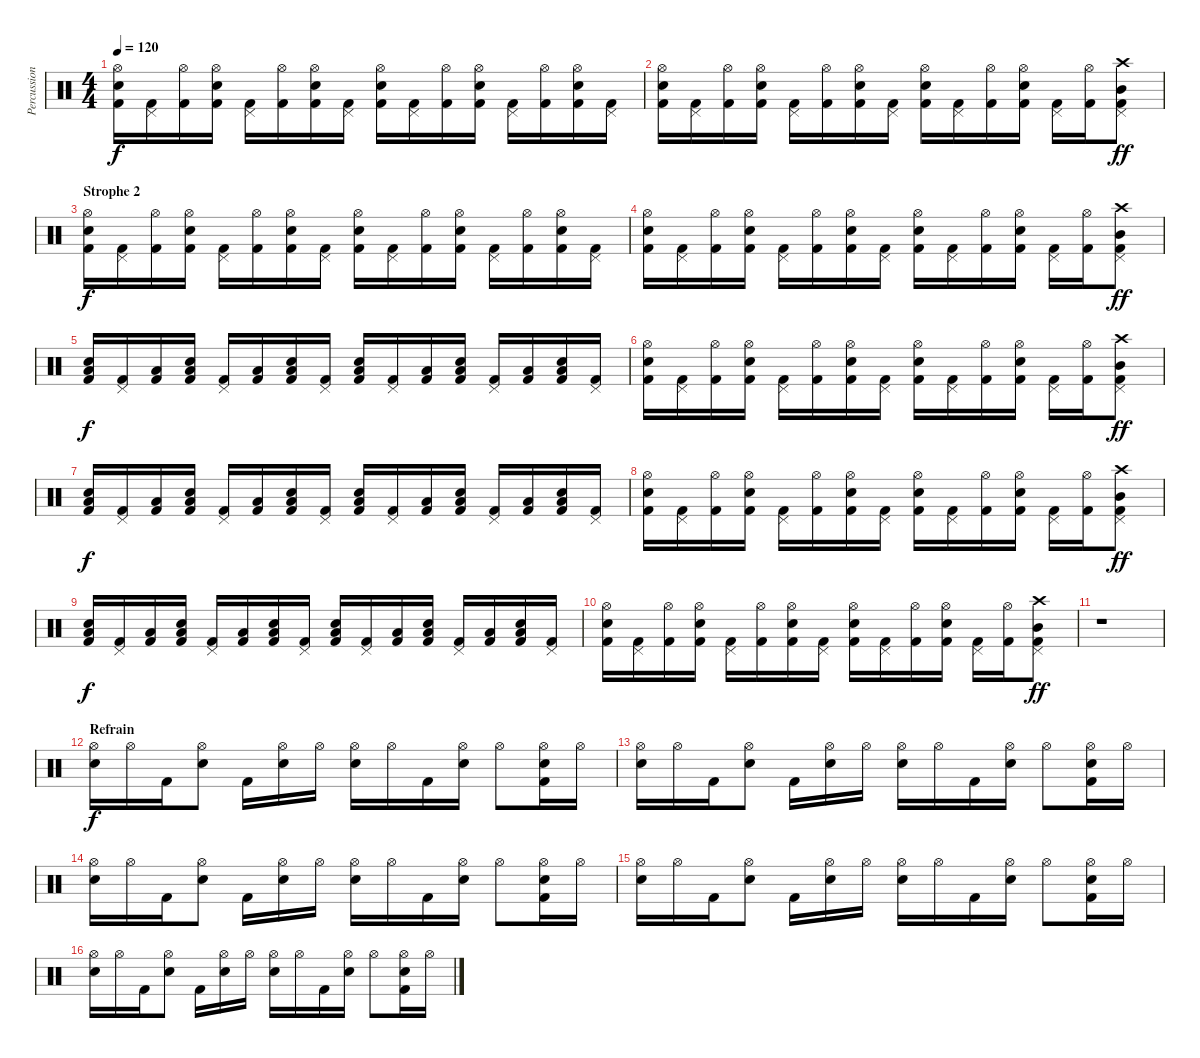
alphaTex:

\track ("Percussion" "Percussion") {instrument percussion}
\staff {score}
\articulation defaults
\ts (4 4)
\tempo 120
\clef neutral
\ks c
("Hi-Hat (open)" "Electric Snare (hit)" "Kick (hit) 2").16{dy f} ("Pedal Hi-Hat (hit)" "Kick (hit) 2").16 ("Hi-Hat (open)" "Kick (hit) 2").16 ("Hi-Hat (open)" "Electric Snare (hit)" "Kick (hit) 2").16 ("Pedal Hi-Hat (hit)" "Kick (hit) 2").16 ("Hi-Hat (open)" "Kick (hit) 2").16 ("Hi-Hat (open)" "Electric Snare (hit)" "Kick (hit) 2").16 ("Pedal Hi-Hat (hit)" "Kick (hit) 2").16 ("Hi-Hat (open)" "Electric Snare (hit)" "Kick (hit) 2").16 ("Pedal Hi-Hat (hit)" "Kick (hit) 2").16 ("Hi-Hat (open)" "Kick (hit) 2").16 ("Hi-Hat (open)" "Electric Snare (hit)" "Kick (hit) 2").16 ("Pedal Hi-Hat (hit)" "Kick (hit) 2").16 ("Hi-Hat (open)" "Kick (hit) 2").16 ("Hi-Hat (open)" "Electric Snare (hit)" "Kick (hit) 2").16 ("Pedal Hi-Hat (hit)" "Kick (hit) 2").16 |
("Hi-Hat (open)" "Electric Snare (hit)" "Kick (hit) 2").16 ("Pedal Hi-Hat (hit)" "Kick (hit) 2").16 ("Hi-Hat (open)" "Kick (hit) 2").16 ("Hi-Hat (open)" "Electric Snare (hit)" "Kick (hit) 2").16 ("Pedal Hi-Hat (hit)" "Kick (hit) 2").16 ("Hi-Hat (open)" "Kick (hit) 2").16 ("Hi-Hat (open)" "Electric Snare (hit)" "Kick (hit) 2").16 ("Pedal Hi-Hat (hit)" "Kick (hit) 2").16 ("Hi-Hat (open)" "Electric Snare (hit)" "Kick (hit) 2").16 ("Pedal Hi-Hat (hit)" "Kick (hit) 2").16 ("Hi-Hat (open)" "Kick (hit) 2").16 ("Hi-Hat (open)" "Electric Snare (hit)" "Kick (hit) 2").16 ("Pedal Hi-Hat (hit)" "Kick (hit) 2").16 ("Hi-Hat (open)" "Kick (hit) 2").16 ("Crash high (hit)" "Mid Tom (hit)" "Pedal Hi-Hat (hit)" "Kick (hit) 2").8{dy ff} |
\section ("" "Strophe 2")
("Hi-Hat (open)" "Electric Snare (hit)" "Kick (hit) 2").16{dy f} ("Pedal Hi-Hat (hit)" "Kick (hit) 2").16 ("Hi-Hat (open)" "Kick (hit) 2").16 ("Hi-Hat (open)" "Electric Snare (hit)" "Kick (hit) 2").16 ("Pedal Hi-Hat (hit)" "Kick (hit) 2").16 ("Hi-Hat (open)" "Kick (hit) 2").16 ("Hi-Hat (open)" "Electric Snare (hit)" "Kick (hit) 2").16 ("Pedal Hi-Hat (hit)" "Kick (hit) 2").16 ("Hi-Hat (open)" "Electric Snare (hit)" "Kick (hit) 2").16 ("Pedal Hi-Hat (hit)" "Kick (hit) 2").16 ("Hi-Hat (open)" "Kick (hit) 2").16 ("Hi-Hat (open)" "Electric Snare (hit)" "Kick (hit) 2").16 ("Pedal Hi-Hat (hit)" "Kick (hit) 2").16 ("Hi-Hat (open)" "Kick (hit) 2").16 ("Hi-Hat (open)" "Electric Snare (hit)" "Kick (hit) 2").16 ("Pedal Hi-Hat (hit)" "Kick (hit) 2").16 |
("Hi-Hat (open)" "Electric Snare (hit)" "Kick (hit) 2").16 ("Pedal Hi-Hat (hit)" "Kick (hit) 2").16 ("Hi-Hat (open)" "Kick (hit) 2").16 ("Hi-Hat (open)" "Electric Snare (hit)" "Kick (hit) 2").16 ("Pedal Hi-Hat (hit)" "Kick (hit) 2").16 ("Hi-Hat (open)" "Kick (hit) 2").16 ("Hi-Hat (open)" "Electric Snare (hit)" "Kick (hit) 2").16 ("Pedal Hi-Hat (hit)" "Kick (hit) 2").16 ("Hi-Hat (open)" "Electric Snare (hit)" "Kick (hit) 2").16 ("Pedal Hi-Hat (hit)" "Kick (hit) 2").16 ("Hi-Hat (open)" "Kick (hit) 2").16 ("Hi-Hat (open)" "Electric Snare (hit)" "Kick (hit) 2").16 ("Pedal Hi-Hat (hit)" "Kick (hit) 2").16 ("Hi-Hat (open)" "Kick (hit) 2").16 ("Crash high (hit)" "Mid Tom (hit)" "Pedal Hi-Hat (hit)" "Kick (hit) 2").8{dy ff} |
("Low Floor Tom (hit)" "Electric Snare (hit)" "Kick (hit) 2").16{dy f} ("Pedal Hi-Hat (hit)" "Kick (hit) 2").16 ("Low Floor Tom (hit)" "Kick (hit) 2").16 ("Low Floor Tom (hit)" "Electric Snare (hit)" "Kick (hit) 2").16 ("Pedal Hi-Hat (hit)" "Kick (hit) 2").16 ("Low Floor Tom (hit)" "Kick (hit) 2").16 ("Low Floor Tom (hit)" "Electric Snare (hit)" "Kick (hit) 2").16 ("Pedal Hi-Hat (hit)" "Kick (hit) 2").16 ("Low Floor Tom (hit)" "Electric Snare (hit)" "Kick (hit) 2").16 ("Pedal Hi-Hat (hit)" "Kick (hit) 2").16 ("Low Floor Tom (hit)" "Kick (hit) 2").16 ("Low Floor Tom (hit)" "Electric Snare (hit)" "Kick (hit) 2").16 ("Pedal Hi-Hat (hit)" "Kick (hit) 2").16 ("Low Floor Tom (hit)" "Kick (hit) 2").16 ("Low Floor Tom (hit)" "Electric Snare (hit)" "Kick (hit) 2").16 ("Pedal Hi-Hat (hit)" "Kick (hit) 2").16 |
("Hi-Hat (open)" "Electric Snare (hit)" "Kick (hit) 2").16 ("Pedal Hi-Hat (hit)" "Kick (hit) 2").16 ("Hi-Hat (open)" "Kick (hit) 2").16 ("Hi-Hat (open)" "Electric Snare (hit)" "Kick (hit) 2").16 ("Pedal Hi-Hat (hit)" "Kick (hit) 2").16 ("Hi-Hat (open)" "Kick (hit) 2").16 ("Hi-Hat (open)" "Electric Snare (hit)" "Kick (hit) 2").16 ("Pedal Hi-Hat (hit)" "Kick (hit) 2").16 ("Hi-Hat (open)" "Electric Snare (hit)" "Kick (hit) 2").16 ("Pedal Hi-Hat (hit)" "Kick (hit) 2").16 ("Hi-Hat (open)" "Kick (hit) 2").16 ("Hi-Hat (open)" "Electric Snare (hit)" "Kick (hit) 2").16 ("Pedal Hi-Hat (hit)" "Kick (hit) 2").16 ("Hi-Hat (open)" "Kick (hit) 2").16 ("Crash high (hit)" "Mid Tom (hit)" "Pedal Hi-Hat (hit)" "Kick (hit) 2").8{dy ff} |
("Low Floor Tom (hit)" "Electric Snare (hit)" "Kick (hit) 2").16{dy f} ("Pedal Hi-Hat (hit)" "Kick (hit) 2").16 ("Low Floor Tom (hit)" "Kick (hit) 2").16 ("Low Floor Tom (hit)" "Electric Snare (hit)" "Kick (hit) 2").16 ("Pedal Hi-Hat (hit)" "Kick (hit) 2").16 ("Low Floor Tom (hit)" "Kick (hit) 2").16 ("Low Floor Tom (hit)" "Electric Snare (hit)" "Kick (hit) 2").16 ("Pedal Hi-Hat (hit)" "Kick (hit) 2").16 ("Low Floor Tom (hit)" "Electric Snare (hit)" "Kick (hit) 2").16 ("Pedal Hi-Hat (hit)" "Kick (hit) 2").16 ("Low Floor Tom (hit)" "Kick (hit) 2").16 ("Low Floor Tom (hit)" "Electric Snare (hit)" "Kick (hit) 2").16 ("Pedal Hi-Hat (hit)" "Kick (hit) 2").16 ("Low Floor Tom (hit)" "Kick (hit) 2").16 ("Low Floor Tom (hit)" "Electric Snare (hit)" "Kick (hit) 2").16 ("Pedal Hi-Hat (hit)" "Kick (hit) 2").16 |
("Hi-Hat (open)" "Electric Snare (hit)" "Kick (hit) 2").16 ("Pedal Hi-Hat (hit)" "Kick (hit) 2").16 ("Hi-Hat (open)" "Kick (hit) 2").16 ("Hi-Hat (open)" "Electric Snare (hit)" "Kick (hit) 2").16 ("Pedal Hi-Hat (hit)" "Kick (hit) 2").16 ("Hi-Hat (open)" "Kick (hit) 2").16 ("Hi-Hat (open)" "Electric Snare (hit)" "Kick (hit) 2").16 ("Pedal Hi-Hat (hit)" "Kick (hit) 2").16 ("Hi-Hat (open)" "Electric Snare (hit)" "Kick (hit) 2").16 ("Pedal Hi-Hat (hit)" "Kick (hit) 2").16 ("Hi-Hat (open)" "Kick (hit) 2").16 ("Hi-Hat (open)" "Electric Snare (hit)" "Kick (hit) 2").16 ("Pedal Hi-Hat (hit)" "Kick (hit) 2").16 ("Hi-Hat (open)" "Kick (hit) 2").16 ("Crash high (hit)" "Mid Tom (hit)" "Pedal Hi-Hat (hit)" "Kick (hit) 2").8{dy ff} |
("Low Floor Tom (hit)" "Electric Snare (hit)" "Kick (hit) 2").16{dy f} ("Pedal Hi-Hat (hit)" "Kick (hit) 2").16 ("Low Floor Tom (hit)" "Kick (hit) 2").16 ("Low Floor Tom (hit)" "Electric Snare (hit)" "Kick (hit) 2").16 ("Pedal Hi-Hat (hit)" "Kick (hit) 2").16 ("Low Floor Tom (hit)" "Kick (hit) 2").16 ("Low Floor Tom (hit)" "Electric Snare (hit)" "Kick (hit) 2").16 ("Pedal Hi-Hat (hit)" "Kick (hit) 2").16 ("Low Floor Tom (hit)" "Electric Snare (hit)" "Kick (hit) 2").16 ("Pedal Hi-Hat (hit)" "Kick (hit) 2").16 ("Low Floor Tom (hit)" "Kick (hit) 2").16 ("Low Floor Tom (hit)" "Electric Snare (hit)" "Kick (hit) 2").16 ("Pedal Hi-Hat (hit)" "Kick (hit) 2").16 ("Low Floor Tom (hit)" "Kick (hit) 2").16 ("Low Floor Tom (hit)" "Electric Snare (hit)" "Kick (hit) 2").16 ("Pedal Hi-Hat (hit)" "Kick (hit) 2").16 |
("Hi-Hat (open)" "Electric Snare (hit)" "Kick (hit) 2").16 ("Pedal Hi-Hat (hit)" "Kick (hit) 2").16 ("Hi-Hat (open)" "Kick (hit) 2").16 ("Hi-Hat (open)" "Electric Snare (hit)" "Kick (hit) 2").16 ("Pedal Hi-Hat (hit)" "Kick (hit) 2").16 ("Hi-Hat (open)" "Kick (hit) 2").16 ("Hi-Hat (open)" "Electric Snare (hit)" "Kick (hit) 2").16 ("Pedal Hi-Hat (hit)" "Kick (hit) 2").16 ("Hi-Hat (open)" "Electric Snare (hit)" "Kick (hit) 2").16 ("Pedal Hi-Hat (hit)" "Kick (hit) 2").16 ("Hi-Hat (open)" "Kick (hit) 2").16 ("Hi-Hat (open)" "Electric Snare (hit)" "Kick (hit) 2").16 ("Pedal Hi-Hat (hit)" "Kick (hit) 2").16 ("Hi-Hat (open)" "Kick (hit) 2").16 ("Crash high (hit)" "Mid Tom (hit)" "Pedal Hi-Hat (hit)" "Kick (hit) 2").8{dy ff} |
r.1 |
\section ("" "Refrain")
("Hi-Hat (open)" "Electric Snare (hit)").16{dy f} "Hi-Hat (open)".16 "Kick (hit) 2".16 ("Hi-Hat (open)" "Electric Snare (hit)").8 "Kick (hit) 2".16 ("Hi-Hat (open)" "Electric Snare (hit)").16 "Hi-Hat (open)".16 ("Hi-Hat (open)" "Electric Snare (hit)").16 "Hi-Hat (open)".16 "Kick (hit) 2".16 ("Hi-Hat (open)" "Electric Snare (hit)").16 "Hi-Hat (open)".8 ("Hi-Hat (open)" "Electric Snare (hit)" "Kick (hit) 2").16 "Hi-Hat (open)".16 |
("Hi-Hat (open)" "Electric Snare (hit)").16 "Hi-Hat (open)".16 "Kick (hit) 2".16 ("Hi-Hat (open)" "Electric Snare (hit)").8 "Kick (hit) 2".16 ("Hi-Hat (open)" "Electric Snare (hit)").16 "Hi-Hat (open)".16 ("Hi-Hat (open)" "Electric Snare (hit)").16 "Hi-Hat (open)".16 "Kick (hit) 2".16 ("Hi-Hat (open)" "Electric Snare (hit)").16 "Hi-Hat (open)".8 ("Hi-Hat (open)" "Electric Snare (hit)" "Kick (hit) 2").16 "Hi-Hat (open)".16 |
("Hi-Hat (open)" "Electric Snare (hit)").16 "Hi-Hat (open)".16 "Kick (hit) 2".16 ("Hi-Hat (open)" "Electric Snare (hit)").8 "Kick (hit) 2".16 ("Hi-Hat (open)" "Electric Snare (hit)").16 "Hi-Hat (open)".16 ("Hi-Hat (open)" "Electric Snare (hit)").16 "Hi-Hat (open)".16 "Kick (hit) 2".16 ("Hi-Hat (open)" "Electric Snare (hit)").16 "Hi-Hat (open)".8 ("Hi-Hat (open)" "Electric Snare (hit)" "Kick (hit) 2").16 "Hi-Hat (open)".16 |
("Hi-Hat (open)" "Electric Snare (hit)").16 "Hi-Hat (open)".16 "Kick (hit) 2".16 ("Hi-Hat (open)" "Electric Snare (hit)").8 "Kick (hit) 2".16 ("Hi-Hat (open)" "Electric Snare (hit)").16 "Hi-Hat (open)".16 ("Hi-Hat (open)" "Electric Snare (hit)").16 "Hi-Hat (open)".16 "Kick (hit) 2".16 ("Hi-Hat (open)" "Electric Snare (hit)").16 "Hi-Hat (open)".8 ("Hi-Hat (open)" "Electric Snare (hit)" "Kick (hit) 2").16 "Hi-Hat (open)".16 |
("Hi-Hat (open)" "Electric Snare (hit)").16 "Hi-Hat (open)".16 "Kick (hit) 2".16 ("Hi-Hat (open)" "Electric Snare (hit)").8 "Kick (hit) 2".16 ("Hi-Hat (open)" "Electric Snare (hit)").16 "Hi-Hat (open)".16 ("Hi-Hat (open)" "Electric Snare (hit)").16 "Hi-Hat (open)".16 "Kick (hit) 2".16 ("Hi-Hat (open)" "Electric Snare (hit)").16 "Hi-Hat (open)".8 ("Hi-Hat (open)" "Electric Snare (hit)" "Kick (hit) 2").16 "Hi-Hat (open)".16
